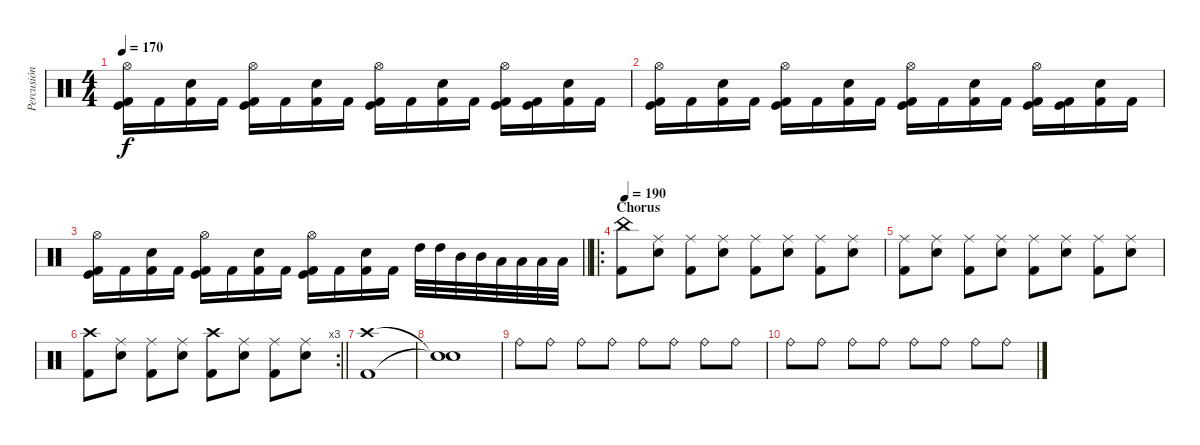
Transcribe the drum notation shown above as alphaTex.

\track ("Percusión" "Percusión") {instrument percussion}
\staff {score}
\articulation defaults
\ts (4 4)
\tempo 170
\clef neutral
\ks c
("Hi-Hat (open)" "Kick (hit)" "Kick (hit) 2").16{dy f} "Kick (hit) 2".16 ("Snare (hit) 2" "Kick (hit) 2").16 "Kick (hit) 2".16 ("Hi-Hat (open)" "Kick (hit)" "Kick (hit) 2").16 "Kick (hit) 2".16 ("Snare (hit) 2" "Kick (hit) 2").16 "Kick (hit) 2".16 ("Hi-Hat (open)" "Kick (hit)" "Kick (hit) 2").16 "Kick (hit) 2".16 ("Snare (hit) 2" "Kick (hit) 2").16 "Kick (hit) 2".16 ("Hi-Hat (open)" "Kick (hit)" "Kick (hit) 2").16 ("Kick (hit)" "Kick (hit) 2").16 ("Snare (hit) 2" "Kick (hit) 2").16 "Kick (hit) 2".16 |
("Hi-Hat (open)" "Kick (hit)" "Kick (hit) 2").16 "Kick (hit) 2".16 ("Snare (hit) 2" "Kick (hit) 2").16 "Kick (hit) 2".16 ("Hi-Hat (open)" "Kick (hit)" "Kick (hit) 2").16 "Kick (hit) 2".16 ("Snare (hit) 2" "Kick (hit) 2").16 "Kick (hit) 2".16 ("Hi-Hat (open)" "Kick (hit)" "Kick (hit) 2").16 "Kick (hit) 2".16 ("Snare (hit) 2" "Kick (hit) 2").16 "Kick (hit) 2".16 ("Hi-Hat (open)" "Kick (hit)" "Kick (hit) 2").16 ("Kick (hit)" "Kick (hit) 2").16 ("Snare (hit) 2" "Kick (hit) 2").16 "Kick (hit) 2".16 |
\barLineRight lightlight
("Hi-Hat (open)" "Kick (hit)" "Kick (hit) 2").16 "Kick (hit) 2".16 ("Snare (hit) 2" "Kick (hit) 2").16 "Kick (hit) 2".16 ("Hi-Hat (open)" "Kick (hit)" "Kick (hit) 2").16 "Kick (hit) 2".16 ("Snare (hit) 2" "Kick (hit) 2").16 "Kick (hit) 2".16 ("Hi-Hat (open)" "Kick (hit)" "Kick (hit) 2").16 "Kick (hit) 2".16 ("Snare (hit) 2" "Kick (hit) 2").16 "Kick (hit) 2".16 "High Tom (hit)".32 "High Tom (hit)".32 "Mid Tom (hit)".32 "Mid Tom (hit)".32 "Low Tom (hit)".32 "Low Tom (hit)".32 "Low Tom (hit)".32 "Low Tom (hit)".32 |
\ro
\section ("" "Chorus")
\tempo 190
("Kick (hit) 2" "China (hit)").8 ("Snare (hit) 2" "Ride (middle)").8 ("Kick (hit) 2" "Ride (middle)").8 ("Snare (hit) 2" "Ride (middle)").8 ("Kick (hit) 2" "Ride (middle)").8 ("Snare (hit) 2" "Ride (middle)").8 ("Kick (hit) 2" "Ride (middle)").8 ("Snare (hit) 2" "Ride (middle)").8 |
("Kick (hit) 2" "Ride (middle)").8 ("Snare (hit) 2" "Ride (middle)").8 ("Kick (hit) 2" "Ride (middle)").8 ("Snare (hit) 2" "Ride (middle)").8 ("Kick (hit) 2" "Ride (middle)").8 ("Snare (hit) 2" "Ride (middle)").8 ("Kick (hit) 2" "Ride (middle)").8 ("Snare (hit) 2" "Ride (middle)").8 |
\rc 3
\barLineRight lightlight
("Kick (hit) 2" "Crash high (hit)").8 ("Snare (hit) 2" "Ride (middle)").8 ("Kick (hit) 2" "Ride (middle)").8 ("Snare (hit) 2" "Ride (middle)").8 ("Kick (hit) 2" "Crash high (hit)").8 ("Snare (hit) 2" "Ride (middle)").8 ("Kick (hit) 2" "Ride (middle)").8 ("Snare (hit) 2" "Ride (middle)").8 |
("Kick (hit) 2" "Crash high (hit)").1 |
("Snare (hit)"{t} "Snare (hit)"{t}).1 |
"Ride (bell)".8 "Ride (bell)".8 "Ride (bell)".8 "Ride (bell)".8 "Ride (bell)".8 "Ride (bell)".8 "Ride (bell)".8 "Ride (bell)".8 |
"Ride (bell)".8 "Ride (bell)".8 "Ride (bell)".8 "Ride (bell)".8 "Ride (bell)".8 "Ride (bell)".8 "Ride (bell)".8 "Ride (bell)".8
